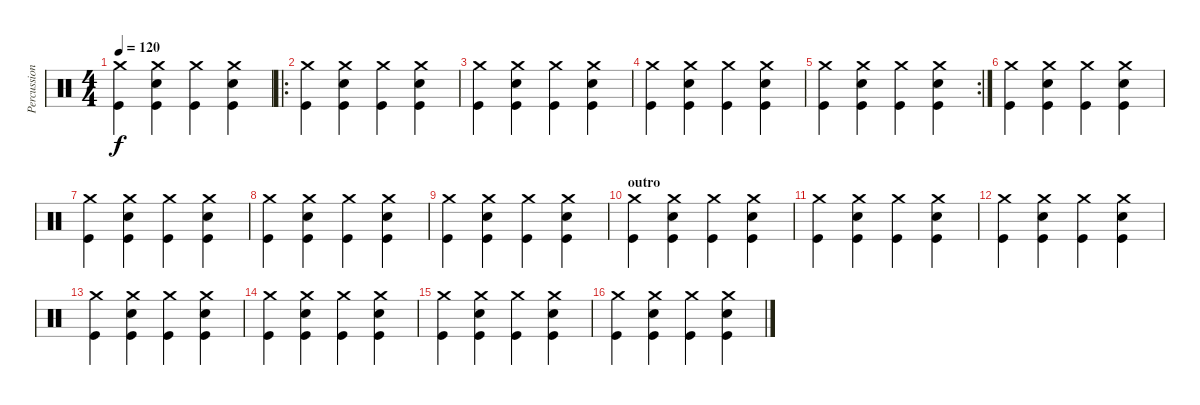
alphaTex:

\track ("Percussion" "Percussion") {instrument percussion}
\staff {score}
\articulation defaults
\ts (4 4)
\tempo 120
\clef neutral
\ks c
("Crash medium (hit)" "Kick (hit)").4{dy f} ("Crash medium (hit)" "Snare (hit) 2" "Kick (hit)").4 ("Crash medium (hit)" "Kick (hit)").4 ("Crash medium (hit)" "Snare (hit) 2" "Kick (hit)").4 |
\ro
("Crash medium (hit)" "Kick (hit)").4 ("Crash medium (hit)" "Snare (hit) 2" "Kick (hit)").4 ("Crash medium (hit)" "Kick (hit)").4 ("Crash medium (hit)" "Snare (hit) 2" "Kick (hit)").4 |
("Crash medium (hit)" "Kick (hit)").4 ("Crash medium (hit)" "Snare (hit) 2" "Kick (hit)").4 ("Crash medium (hit)" "Kick (hit)").4 ("Crash medium (hit)" "Snare (hit) 2" "Kick (hit)").4 |
("Crash medium (hit)" "Kick (hit)").4 ("Crash medium (hit)" "Snare (hit) 2" "Kick (hit)").4 ("Crash medium (hit)" "Kick (hit)").4 ("Crash medium (hit)" "Snare (hit) 2" "Kick (hit)").4 |
\rc 2
("Crash medium (hit)" "Kick (hit)").4 ("Crash medium (hit)" "Snare (hit) 2" "Kick (hit)").4 ("Crash medium (hit)" "Kick (hit)").4 ("Crash medium (hit)" "Snare (hit) 2" "Kick (hit)").4 |
("Crash medium (hit)" "Kick (hit)").4 ("Crash medium (hit)" "Snare (hit) 2" "Kick (hit)").4 ("Crash medium (hit)" "Kick (hit)").4 ("Crash medium (hit)" "Snare (hit) 2" "Kick (hit)").4 |
("Crash medium (hit)" "Kick (hit)").4 ("Crash medium (hit)" "Snare (hit) 2" "Kick (hit)").4 ("Crash medium (hit)" "Kick (hit)").4 ("Crash medium (hit)" "Snare (hit) 2" "Kick (hit)").4 |
("Crash medium (hit)" "Kick (hit)").4 ("Crash medium (hit)" "Snare (hit) 2" "Kick (hit)").4 ("Crash medium (hit)" "Kick (hit)").4 ("Crash medium (hit)" "Snare (hit) 2" "Kick (hit)").4 |
("Crash medium (hit)" "Kick (hit)").4 ("Crash medium (hit)" "Snare (hit) 2" "Kick (hit)").4 ("Crash medium (hit)" "Kick (hit)").4 ("Crash medium (hit)" "Snare (hit) 2" "Kick (hit)").4 |
\section ("" "outro")
("Crash medium (hit)" "Kick (hit)").4{volume 13} ("Crash medium (hit)" "Snare (hit) 2" "Kick (hit)").4 ("Crash medium (hit)" "Kick (hit)").4 ("Crash medium (hit)" "Snare (hit) 2" "Kick (hit)").4 |
("Crash medium (hit)" "Kick (hit)").4 ("Crash medium (hit)" "Snare (hit) 2" "Kick (hit)").4 ("Crash medium (hit)" "Kick (hit)").4 ("Crash medium (hit)" "Snare (hit) 2" "Kick (hit)").4 |
("Crash medium (hit)" "Kick (hit)").4{volume 10} ("Crash medium (hit)" "Snare (hit) 2" "Kick (hit)").4 ("Crash medium (hit)" "Kick (hit)").4 ("Crash medium (hit)" "Snare (hit) 2" "Kick (hit)").4 |
("Crash medium (hit)" "Kick (hit)").4 ("Crash medium (hit)" "Snare (hit) 2" "Kick (hit)").4 ("Crash medium (hit)" "Kick (hit)").4 ("Crash medium (hit)" "Snare (hit) 2" "Kick (hit)").4 |
("Crash medium (hit)" "Kick (hit)").4{volume 7} ("Crash medium (hit)" "Snare (hit) 2" "Kick (hit)").4 ("Crash medium (hit)" "Kick (hit)").4 ("Crash medium (hit)" "Snare (hit) 2" "Kick (hit)").4 |
("Crash medium (hit)" "Kick (hit)").4 ("Crash medium (hit)" "Snare (hit) 2" "Kick (hit)").4 ("Crash medium (hit)" "Kick (hit)").4 ("Crash medium (hit)" "Snare (hit) 2" "Kick (hit)").4 |
("Crash medium (hit)" "Kick (hit)").4{volume 4} ("Crash medium (hit)" "Snare (hit) 2" "Kick (hit)").4 ("Crash medium (hit)" "Kick (hit)").4 ("Crash medium (hit)" "Snare (hit) 2" "Kick (hit)").4
